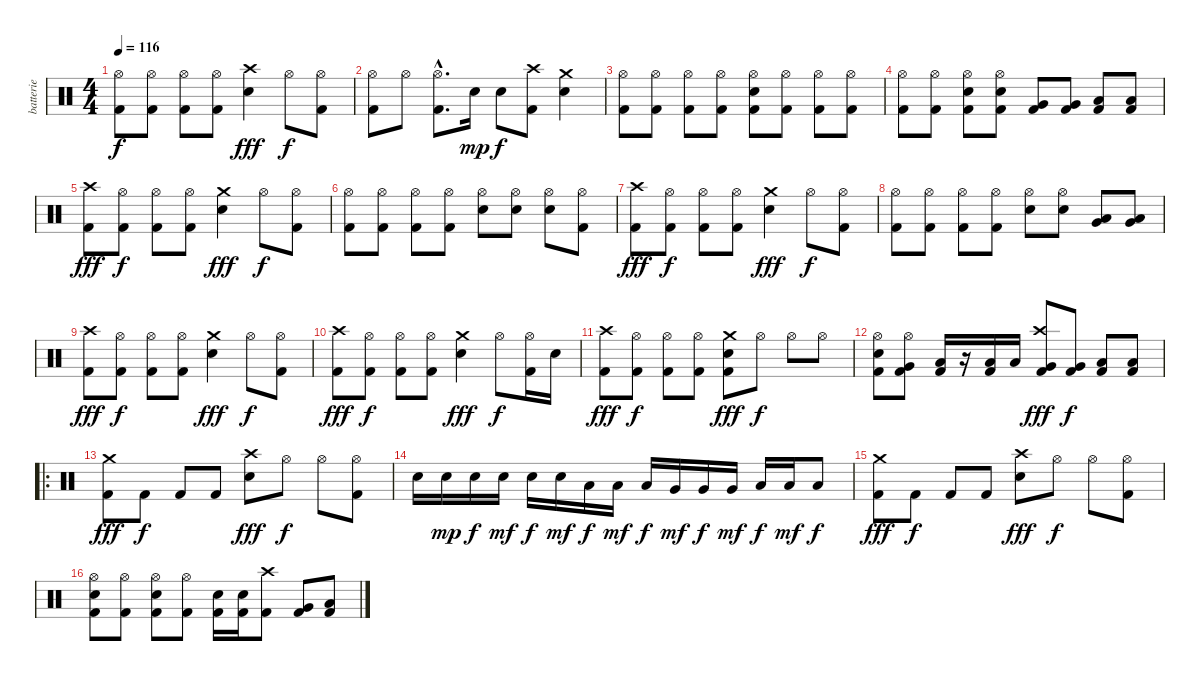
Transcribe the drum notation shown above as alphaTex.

\track ("batterie" "batterie") {instrument percussion}
\staff {score}
\articulation defaults
\ts (4 4)
\tempo 116
\clef neutral
\ks c
("Hi-Hat (open)" "Kick (hit) 2").8{dy f} ("Hi-Hat (open)" "Kick (hit) 2").8 ("Hi-Hat (open)" "Kick (hit) 2").8 ("Hi-Hat (open)" "Kick (hit) 2").8 ("Crash high (hit)" "Electric Snare (hit)").4{dy fff} "Hi-Hat (open)".8{dy f} ("Kick (hit) 2" "Hi-Hat (open)").8 |
("Hi-Hat (open)" "Kick (hit) 2").8 "Hi-Hat (open)".8 ("Hi-Hat (open)"{hac} "Kick (hit) 2"{hac}).8{d} "Electric Snare (hit)".16{dy mp} "Electric Snare (hit)".8{dy f} ("Crash high (hit)" "Kick (hit) 2").8 ("Electric Snare (hit)" "Crash medium (hit)").4 |
("Hi-Hat (open)" "Kick (hit) 2").8 ("Hi-Hat (open)" "Kick (hit) 2").8 ("Hi-Hat (open)" "Kick (hit) 2").8 ("Hi-Hat (open)" "Kick (hit) 2").8 ("Hi-Hat (open)" "Electric Snare (hit)" "Kick (hit) 2").8 ("Hi-Hat (open)" "Kick (hit) 2").8 ("Hi-Hat (open)" "Kick (hit) 2").8 ("Hi-Hat (open)" "Kick (hit) 2").8 |
("Hi-Hat (open)" "Kick (hit) 2").8 ("Hi-Hat (open)" "Kick (hit) 2").8 ("Hi-Hat (open)" "Electric Snare (hit)" "Kick (hit) 2").8 ("Hi-Hat (open)" "Electric Snare (hit)" "Kick (hit) 2").8 ("Very Low Tom (hit)" "Kick (hit) 2").8 ("Very Low Tom (hit)" "Kick (hit) 2").8 ("Low Floor Tom (hit)" "Kick (hit) 2").8 ("Low Floor Tom (hit)" "Kick (hit) 2").8 |
("Crash high (hit)" "Kick (hit) 2").8{dy fff} ("Hi-Hat (open)" "Kick (hit) 2").8{dy f} ("Hi-Hat (open)" "Kick (hit) 2").8 ("Hi-Hat (open)" "Kick (hit) 2").8 ("Crash medium (hit)" "Electric Snare (hit)").4{dy fff} "Hi-Hat (open)".8{dy f} ("Kick (hit) 2" "Hi-Hat (open)").8 |
("Hi-Hat (open)" "Kick (hit) 2").8 ("Hi-Hat (open)" "Kick (hit) 2").8 ("Hi-Hat (open)" "Kick (hit) 2").8 ("Hi-Hat (open)" "Kick (hit) 2").8 ("Hi-Hat (open)" "Electric Snare (hit)").8 ("Hi-Hat (open)" "Electric Snare (hit)").8 ("Hi-Hat (open)" "Electric Snare (hit)").8 ("Hi-Hat (open)" "Kick (hit) 2").8 |
("Crash high (hit)" "Kick (hit) 2").8{dy fff} ("Hi-Hat (open)" "Kick (hit) 2").8{dy f} ("Hi-Hat (open)" "Kick (hit) 2").8 ("Hi-Hat (open)" "Kick (hit) 2").8 ("Crash medium (hit)" "Electric Snare (hit)").4{dy fff} "Hi-Hat (open)".8{dy f} ("Kick (hit) 2" "Hi-Hat (open)").8 |
("Hi-Hat (open)" "Kick (hit) 2").8 ("Hi-Hat (open)" "Kick (hit) 2").8 ("Hi-Hat (open)" "Kick (hit) 2").8 ("Hi-Hat (open)" "Kick (hit) 2").8 ("Hi-Hat (open)" "Electric Snare (hit)").8 ("Hi-Hat (open)" "Electric Snare (hit)").8 ("Very Low Tom (hit)" "Low Floor Tom (hit)").8 ("Very Low Tom (hit)" "Low Floor Tom (hit)").8 |
("Crash high (hit)" "Kick (hit) 2").8{dy fff} ("Hi-Hat (open)" "Kick (hit) 2").8{dy f} ("Hi-Hat (open)" "Kick (hit) 2").8 ("Hi-Hat (open)" "Kick (hit) 2").8 ("Crash medium (hit)" "Electric Snare (hit)").4{dy fff} "Hi-Hat (open)".8{dy f} ("Kick (hit) 2" "Hi-Hat (open)").8 |
("Crash high (hit)" "Kick (hit) 2").8{dy fff} ("Hi-Hat (open)" "Kick (hit) 2").8{dy f} ("Hi-Hat (open)" "Kick (hit) 2").8 ("Hi-Hat (open)" "Kick (hit) 2").8 ("Crash medium (hit)" "Electric Snare (hit)").4{dy fff} "Hi-Hat (open)".8{dy f} ("Kick (hit) 2" "Hi-Hat (open)").16 "Electric Snare (hit)".16 |
("Crash high (hit)" "Kick (hit) 2").8{dy fff} ("Hi-Hat (open)" "Kick (hit) 2").8{dy f} ("Hi-Hat (open)" "Kick (hit) 2").8 ("Hi-Hat (open)" "Kick (hit) 2").8 ("Kick (hit) 2" "Crash medium (hit)" "Electric Snare (hit)").8{dy fff} "Hi-Hat (open)".8{dy f} "Hi-Hat (open)".8 "Hi-Hat (open)".8 |
("Hi-Hat (open)" "Electric Snare (hit)" "Kick (hit) 2").8 ("Hi-Hat (open)" "Very Low Tom (hit)" "Kick (hit) 2").8 ("Low Tom (hit)" "Kick (hit) 2").16 r.16 ("Low Tom (hit)" "Kick (hit) 2").16 "Low Tom (hit)".16 ("Crash high (hit)" "Very Low Tom (hit)" "Kick (hit) 2").8{dy fff} ("Very Low Tom (hit)" "Kick (hit) 2").8{dy f} ("Low Floor Tom (hit)" "Kick (hit) 2").8 ("Low Floor Tom (hit)" "Kick (hit) 2").8 |
\ro
("Crash medium (hit)" "Kick (hit) 2").8{dy fff} "Kick (hit) 2".8{dy f} "Kick (hit) 2".8 "Kick (hit) 2".8 ("Crash high (hit)" "Electric Snare (hit)").8{dy fff} "Hi-Hat (open)".8{dy f} "Hi-Hat (open)".8 ("Kick (hit) 2" "Hi-Hat (open)").8 |
"Electric Snare (hit)".16 "Electric Snare (hit)".16{dy mp} "Electric Snare (hit)".16{dy f} "Electric Snare (hit)".16{dy mf} "Electric Snare (hit)".16{dy f} "Electric Snare (hit)".16{dy mf} "Low Tom (hit)".16{dy f} "Low Tom (hit)".16{dy mf} "Low Tom (hit)".16{dy f} "Very Low Tom (hit)".16{dy mf} "Very Low Tom (hit)".16{dy f} "Very Low Tom (hit)".16{dy mf} "Low Floor Tom (hit)".16{dy f} "Low Floor Tom (hit)".16{dy mf} "Low Floor Tom (hit)".8{dy f} |
("Crash medium (hit)" "Kick (hit) 2").8{dy fff} "Kick (hit) 2".8{dy f} "Kick (hit) 2".8 "Kick (hit) 2".8 ("Crash high (hit)" "Electric Snare (hit)").8{dy fff} "Hi-Hat (open)".8{dy f} "Hi-Hat (open)".8 ("Kick (hit) 2" "Hi-Hat (open)").8 |
("Hi-Hat (open)" "Electric Snare (hit)" "Kick (hit) 2").8 ("Hi-Hat (open)" "Kick (hit) 2").8 ("Hi-Hat (open)" "Electric Snare (hit)" "Kick (hit) 2").8 ("Hi-Hat (open)" "Kick (hit) 2").8 ("Electric Snare (hit)" "Kick (hit) 2").16 ("Electric Snare (hit)" "Kick (hit) 2").16 ("Crash high (hit)" "Kick (hit) 2").8 ("Very Low Tom (hit)" "Kick (hit) 2").8 ("Low Floor Tom (hit)" "Kick (hit) 2").8
